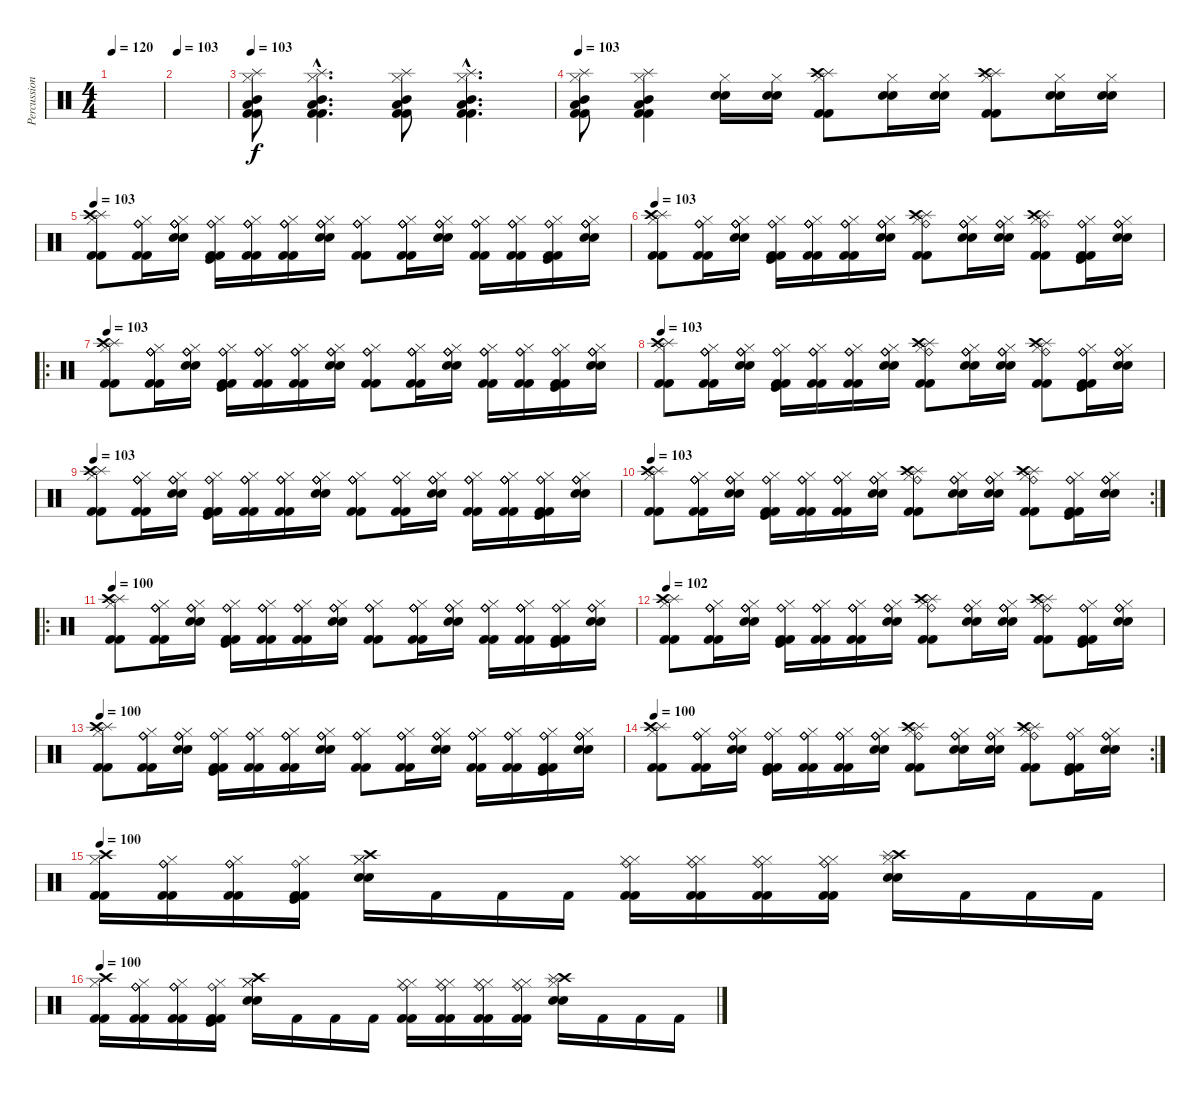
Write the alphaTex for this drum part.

\track ("Percussion" "Percussion") {instrument percussion}
\staff {score}
\articulation defaults
\ts (4 4)
\tempo 120
\tempo 103
\tempo 120
\clef neutral
\ks c
|
\tempo 103
|
\tempo 103
("Splash (hit)" "Hi-Hat (closed)" "Low Tom (hit)" "Mid Tom (hit)" "Kick (hit) 2" "Kick (hit) 2").8 ("Splash (hit)"{hac} "Hi-Hat (closed)"{hac} "Low Tom (hit)"{hac} "Mid Tom (hit)"{hac} "Kick (hit) 2"{hac} "Kick (hit) 2"{hac}).4{d} ("Splash (hit)" "Hi-Hat (closed)" "Low Tom (hit)" "Mid Tom (hit)" "Kick (hit) 2" "Kick (hit) 2").8 ("Splash (hit)"{hac} "Hi-Hat (closed)"{hac} "Low Tom (hit)"{hac} "Mid Tom (hit)"{hac} "Kick (hit) 2"{hac} "Kick (hit) 2"{hac}).4{d} |
\tempo 103
("Splash (hit)" "Hi-Hat (closed)" "Low Tom (hit)" "Mid Tom (hit)" "Kick (hit) 2" "Kick (hit) 2").8 ("Splash (hit)" "Hi-Hat (closed)" "Low Tom (hit)" "Mid Tom (hit)" "Kick (hit) 2" "Kick (hit) 2").4 ("Hi-Hat (closed)" "Snare (hit) 2" "Snare (hit) 2").16 ("Hi-Hat (closed)" "Snare (hit) 2" "Snare (hit) 2").16 ("Splash (hit)" "Crash high (hit)" "Hi-Hat (closed)" "Kick (hit) 2" "Kick (hit) 2").8 ("Hi-Hat (closed)" "Snare (hit) 2" "Snare (hit) 2").16 ("Hi-Hat (closed)" "Snare (hit) 2" "Snare (hit) 2").16 ("Splash (hit)" "Crash high (hit)" "Hi-Hat (closed)" "Kick (hit) 2" "Kick (hit) 2").8 ("Hi-Hat (closed)" "Snare (hit) 2" "Snare (hit) 2").16 ("Hi-Hat (closed)" "Snare (hit) 2" "Snare (hit) 2").16 |
\tempo 103
("Splash (hit)" "Crash high (hit)" "Hi-Hat (closed)" "Kick (hit) 2" "Kick (hit) 2").8 ("Ride (bell)" "Ride (bell)" "Ride (bell)" "Hi-Hat (closed)" "Kick (hit) 2" "Kick (hit) 2").16 ("Ride (bell)" "Ride (bell)" "Ride (bell)" "Hi-Hat (closed)" "Snare (hit) 2" "Snare (hit) 2").16 ("Ride (bell)" "Ride (bell)" "Kick (hit)" "Hi-Hat (closed)" "Kick (hit) 2" "Kick (hit) 2").16 ("Ride (bell)" "Ride (bell)" "Ride (bell)" "Hi-Hat (closed)" "Kick (hit) 2" "Kick (hit) 2").16 ("Ride (bell)" "Ride (bell)" "Ride (bell)" "Hi-Hat (closed)" "Kick (hit) 2" "Kick (hit) 2").16 ("Ride (bell)" "Ride (bell)" "Ride (bell)" "Hi-Hat (closed)" "Snare (hit) 2" "Snare (hit) 2").16 ("Ride (bell)" "Ride (bell)" "Ride (bell)" "Hi-Hat (closed)" "Kick (hit) 2" "Kick (hit) 2").8 ("Ride (bell)" "Ride (bell)" "Ride (bell)" "Hi-Hat (closed)" "Kick (hit) 2" "Kick (hit) 2").16 ("Ride (bell)" "Ride (bell)" "Ride (bell)" "Hi-Hat (closed)" "Snare (hit) 2" "Snare (hit) 2").16 ("Ride (bell)" "Ride (bell)" "Ride (bell)" "Hi-Hat (closed)" "Kick (hit) 2" "Kick (hit) 2").16 ("Ride (bell)" "Ride (bell)" "Ride (bell)" "Hi-Hat (closed)" "Kick (hit) 2" "Kick (hit) 2").16 ("Kick (hit)" "Ride (bell)" "Ride (bell)" "Hi-Hat (closed)" "Kick (hit) 2" "Kick (hit) 2").16 ("Ride (bell)" "Ride (bell)" "Ride (bell)" "Hi-Hat (closed)" "Snare (hit) 2" "Snare (hit) 2").16 |
\tempo 103
("Splash (hit)" "Crash high (hit)" "Hi-Hat (closed)" "Kick (hit) 2" "Kick (hit) 2").8 ("Ride (bell)" "Ride (bell)" "Ride (bell)" "Hi-Hat (closed)" "Kick (hit) 2" "Kick (hit) 2").16 ("Ride (bell)" "Ride (bell)" "Ride (bell)" "Hi-Hat (closed)" "Snare (hit) 2" "Snare (hit) 2").16 ("Ride (bell)" "Ride (bell)" "Kick (hit)" "Hi-Hat (closed)" "Kick (hit) 2" "Kick (hit) 2").16 ("Ride (bell)" "Ride (bell)" "Ride (bell)" "Hi-Hat (closed)" "Kick (hit) 2" "Kick (hit) 2").16 ("Ride (bell)" "Ride (bell)" "Ride (bell)" "Hi-Hat (closed)" "Kick (hit) 2" "Kick (hit) 2").16 ("Ride (bell)" "Ride (bell)" "Ride (bell)" "Hi-Hat (closed)" "Snare (hit) 2" "Snare (hit) 2").16 ("Splash (hit)" "Ride (bell)" "Crash high (hit)" "Hi-Hat (closed)" "Kick (hit) 2" "Kick (hit) 2").8 ("Ride (bell)" "Ride (bell)" "Ride (bell)" "Hi-Hat (closed)" "Snare (hit) 2" "Snare (hit) 2").16 ("Ride (bell)" "Ride (bell)" "Ride (bell)" "Hi-Hat (closed)" "Snare (hit) 2" "Snare (hit) 2").16 ("Splash (hit)" "Ride (bell)" "Crash high (hit)" "Hi-Hat (closed)" "Kick (hit) 2" "Kick (hit) 2").8 ("Kick (hit)" "Ride (bell)" "Ride (bell)" "Hi-Hat (closed)" "Kick (hit) 2" "Kick (hit) 2").16 ("Ride (bell)" "Ride (bell)" "Ride (bell)" "Hi-Hat (closed)" "Snare (hit) 2" "Snare (hit) 2").16 |
\ro
\tempo 103
("Splash (hit)" "Crash high (hit)" "Hi-Hat (closed)" "Kick (hit) 2" "Kick (hit) 2").8 ("Ride (bell)" "Ride (bell)" "Ride (bell)" "Hi-Hat (closed)" "Kick (hit) 2" "Kick (hit) 2").16 ("Ride (bell)" "Ride (bell)" "Ride (bell)" "Hi-Hat (closed)" "Snare (hit) 2" "Snare (hit) 2").16 ("Ride (bell)" "Ride (bell)" "Kick (hit)" "Hi-Hat (closed)" "Kick (hit) 2" "Kick (hit) 2").16 ("Ride (bell)" "Ride (bell)" "Ride (bell)" "Hi-Hat (closed)" "Kick (hit) 2" "Kick (hit) 2").16 ("Ride (bell)" "Ride (bell)" "Ride (bell)" "Hi-Hat (closed)" "Kick (hit) 2" "Kick (hit) 2").16 ("Ride (bell)" "Ride (bell)" "Ride (bell)" "Hi-Hat (closed)" "Snare (hit) 2" "Snare (hit) 2").16 ("Ride (bell)" "Ride (bell)" "Ride (bell)" "Hi-Hat (closed)" "Kick (hit) 2" "Kick (hit) 2").8 ("Ride (bell)" "Ride (bell)" "Ride (bell)" "Hi-Hat (closed)" "Kick (hit) 2" "Kick (hit) 2").16 ("Ride (bell)" "Ride (bell)" "Ride (bell)" "Hi-Hat (closed)" "Snare (hit) 2" "Snare (hit) 2").16 ("Ride (bell)" "Ride (bell)" "Ride (bell)" "Hi-Hat (closed)" "Kick (hit) 2" "Kick (hit) 2").16 ("Ride (bell)" "Ride (bell)" "Ride (bell)" "Hi-Hat (closed)" "Kick (hit) 2" "Kick (hit) 2").16 ("Kick (hit)" "Ride (bell)" "Ride (bell)" "Hi-Hat (closed)" "Kick (hit) 2" "Kick (hit) 2").16 ("Ride (bell)" "Ride (bell)" "Ride (bell)" "Hi-Hat (closed)" "Snare (hit) 2" "Snare (hit) 2").16 |
\tempo 103
("Splash (hit)" "Crash high (hit)" "Hi-Hat (closed)" "Kick (hit) 2" "Kick (hit) 2").8 ("Ride (bell)" "Ride (bell)" "Ride (bell)" "Hi-Hat (closed)" "Kick (hit) 2" "Kick (hit) 2").16 ("Ride (bell)" "Ride (bell)" "Ride (bell)" "Hi-Hat (closed)" "Snare (hit) 2" "Snare (hit) 2").16 ("Ride (bell)" "Ride (bell)" "Kick (hit)" "Hi-Hat (closed)" "Kick (hit) 2" "Kick (hit) 2").16 ("Ride (bell)" "Ride (bell)" "Ride (bell)" "Hi-Hat (closed)" "Kick (hit) 2" "Kick (hit) 2").16 ("Ride (bell)" "Ride (bell)" "Ride (bell)" "Hi-Hat (closed)" "Kick (hit) 2" "Kick (hit) 2").16 ("Ride (bell)" "Ride (bell)" "Ride (bell)" "Hi-Hat (closed)" "Snare (hit) 2" "Snare (hit) 2").16 ("Splash (hit)" "Ride (bell)" "Crash high (hit)" "Hi-Hat (closed)" "Kick (hit) 2" "Kick (hit) 2").8 ("Ride (bell)" "Ride (bell)" "Ride (bell)" "Hi-Hat (closed)" "Snare (hit) 2" "Snare (hit) 2").16 ("Ride (bell)" "Ride (bell)" "Ride (bell)" "Hi-Hat (closed)" "Snare (hit) 2" "Snare (hit) 2").16 ("Splash (hit)" "Ride (bell)" "Crash high (hit)" "Hi-Hat (closed)" "Kick (hit) 2" "Kick (hit) 2").8 ("Kick (hit)" "Ride (bell)" "Ride (bell)" "Hi-Hat (closed)" "Kick (hit) 2" "Kick (hit) 2").16 ("Ride (bell)" "Ride (bell)" "Ride (bell)" "Hi-Hat (closed)" "Snare (hit) 2" "Snare (hit) 2").16 |
\tempo 103
("Splash (hit)" "Crash high (hit)" "Hi-Hat (closed)" "Kick (hit) 2" "Kick (hit) 2").8 ("Ride (bell)" "Ride (bell)" "Ride (bell)" "Hi-Hat (closed)" "Kick (hit) 2" "Kick (hit) 2").16 ("Ride (bell)" "Ride (bell)" "Ride (bell)" "Hi-Hat (closed)" "Snare (hit) 2" "Snare (hit) 2").16 ("Ride (bell)" "Ride (bell)" "Kick (hit)" "Hi-Hat (closed)" "Kick (hit) 2" "Kick (hit) 2").16 ("Ride (bell)" "Ride (bell)" "Ride (bell)" "Hi-Hat (closed)" "Kick (hit) 2" "Kick (hit) 2").16 ("Ride (bell)" "Ride (bell)" "Ride (bell)" "Hi-Hat (closed)" "Kick (hit) 2" "Kick (hit) 2").16 ("Ride (bell)" "Ride (bell)" "Ride (bell)" "Hi-Hat (closed)" "Snare (hit) 2" "Snare (hit) 2").16 ("Ride (bell)" "Ride (bell)" "Ride (bell)" "Hi-Hat (closed)" "Kick (hit) 2" "Kick (hit) 2").8 ("Ride (bell)" "Ride (bell)" "Ride (bell)" "Hi-Hat (closed)" "Kick (hit) 2" "Kick (hit) 2").16 ("Ride (bell)" "Ride (bell)" "Ride (bell)" "Hi-Hat (closed)" "Snare (hit) 2" "Snare (hit) 2").16 ("Ride (bell)" "Ride (bell)" "Ride (bell)" "Hi-Hat (closed)" "Kick (hit) 2" "Kick (hit) 2").16 ("Ride (bell)" "Ride (bell)" "Ride (bell)" "Hi-Hat (closed)" "Kick (hit) 2" "Kick (hit) 2").16 ("Kick (hit)" "Ride (bell)" "Ride (bell)" "Hi-Hat (closed)" "Kick (hit) 2" "Kick (hit) 2").16 ("Ride (bell)" "Ride (bell)" "Ride (bell)" "Hi-Hat (closed)" "Snare (hit) 2" "Snare (hit) 2").16 |
\rc 2
\tempo 103
("Splash (hit)" "Crash high (hit)" "Hi-Hat (closed)" "Kick (hit) 2" "Kick (hit) 2").8 ("Ride (bell)" "Ride (bell)" "Ride (bell)" "Hi-Hat (closed)" "Kick (hit) 2" "Kick (hit) 2").16 ("Ride (bell)" "Ride (bell)" "Ride (bell)" "Hi-Hat (closed)" "Snare (hit) 2" "Snare (hit) 2").16 ("Ride (bell)" "Ride (bell)" "Kick (hit)" "Hi-Hat (closed)" "Kick (hit) 2" "Kick (hit) 2").16 ("Ride (bell)" "Ride (bell)" "Ride (bell)" "Hi-Hat (closed)" "Kick (hit) 2" "Kick (hit) 2").16 ("Ride (bell)" "Ride (bell)" "Ride (bell)" "Hi-Hat (closed)" "Kick (hit) 2" "Kick (hit) 2").16 ("Ride (bell)" "Ride (bell)" "Ride (bell)" "Hi-Hat (closed)" "Snare (hit) 2" "Snare (hit) 2").16 ("Splash (hit)" "Ride (bell)" "Crash high (hit)" "Hi-Hat (closed)" "Kick (hit) 2" "Kick (hit) 2").8 ("Ride (bell)" "Ride (bell)" "Ride (bell)" "Hi-Hat (closed)" "Snare (hit) 2" "Snare (hit) 2").16 ("Ride (bell)" "Ride (bell)" "Ride (bell)" "Hi-Hat (closed)" "Snare (hit) 2" "Snare (hit) 2").16 ("Splash (hit)" "Ride (bell)" "Crash high (hit)" "Hi-Hat (closed)" "Kick (hit) 2" "Kick (hit) 2").8 ("Kick (hit)" "Ride (bell)" "Ride (bell)" "Hi-Hat (closed)" "Kick (hit) 2" "Kick (hit) 2").16 ("Ride (bell)" "Ride (bell)" "Ride (bell)" "Hi-Hat (closed)" "Snare (hit) 2" "Snare (hit) 2").16 |
\ro
\tempo 100
("Splash (hit)" "Crash high (hit)" "Hi-Hat (closed)" "Kick (hit) 2" "Kick (hit) 2").8 ("Ride (bell)" "Ride (bell)" "Ride (bell)" "Hi-Hat (closed)" "Kick (hit) 2" "Kick (hit) 2").16 ("Ride (bell)" "Ride (bell)" "Ride (bell)" "Hi-Hat (closed)" "Snare (hit) 2" "Snare (hit) 2").16 ("Ride (bell)" "Ride (bell)" "Kick (hit)" "Hi-Hat (closed)" "Kick (hit) 2" "Kick (hit) 2").16 ("Ride (bell)" "Ride (bell)" "Ride (bell)" "Hi-Hat (closed)" "Kick (hit) 2" "Kick (hit) 2").16 ("Ride (bell)" "Ride (bell)" "Ride (bell)" "Hi-Hat (closed)" "Kick (hit) 2" "Kick (hit) 2").16 ("Ride (bell)" "Ride (bell)" "Ride (bell)" "Hi-Hat (closed)" "Snare (hit) 2" "Snare (hit) 2").16 ("Ride (bell)" "Ride (bell)" "Ride (bell)" "Hi-Hat (closed)" "Kick (hit) 2" "Kick (hit) 2").8 ("Ride (bell)" "Ride (bell)" "Ride (bell)" "Hi-Hat (closed)" "Kick (hit) 2" "Kick (hit) 2").16 ("Ride (bell)" "Ride (bell)" "Ride (bell)" "Hi-Hat (closed)" "Snare (hit) 2" "Snare (hit) 2").16 ("Ride (bell)" "Ride (bell)" "Ride (bell)" "Hi-Hat (closed)" "Kick (hit) 2" "Kick (hit) 2").16 ("Ride (bell)" "Ride (bell)" "Ride (bell)" "Hi-Hat (closed)" "Kick (hit) 2" "Kick (hit) 2").16 ("Kick (hit)" "Ride (bell)" "Ride (bell)" "Hi-Hat (closed)" "Kick (hit) 2" "Kick (hit) 2").16 ("Ride (bell)" "Ride (bell)" "Ride (bell)" "Hi-Hat (closed)" "Snare (hit) 2" "Snare (hit) 2").16 |
\tempo 102
("Splash (hit)" "Crash high (hit)" "Hi-Hat (closed)" "Kick (hit) 2" "Kick (hit) 2").8 ("Ride (bell)" "Ride (bell)" "Ride (bell)" "Hi-Hat (closed)" "Kick (hit) 2" "Kick (hit) 2").16 ("Ride (bell)" "Ride (bell)" "Ride (bell)" "Hi-Hat (closed)" "Snare (hit) 2" "Snare (hit) 2").16 ("Ride (bell)" "Ride (bell)" "Kick (hit)" "Hi-Hat (closed)" "Kick (hit) 2" "Kick (hit) 2").16 ("Ride (bell)" "Ride (bell)" "Ride (bell)" "Hi-Hat (closed)" "Kick (hit) 2" "Kick (hit) 2").16 ("Ride (bell)" "Ride (bell)" "Ride (bell)" "Hi-Hat (closed)" "Kick (hit) 2" "Kick (hit) 2").16 ("Ride (bell)" "Ride (bell)" "Ride (bell)" "Hi-Hat (closed)" "Snare (hit) 2" "Snare (hit) 2").16 ("Splash (hit)" "Ride (bell)" "Crash high (hit)" "Hi-Hat (closed)" "Kick (hit) 2" "Kick (hit) 2").8 ("Ride (bell)" "Ride (bell)" "Ride (bell)" "Hi-Hat (closed)" "Snare (hit) 2" "Snare (hit) 2").16 ("Ride (bell)" "Ride (bell)" "Ride (bell)" "Hi-Hat (closed)" "Snare (hit) 2" "Snare (hit) 2").16 ("Splash (hit)" "Ride (bell)" "Crash high (hit)" "Hi-Hat (closed)" "Kick (hit) 2" "Kick (hit) 2").8 ("Kick (hit)" "Ride (bell)" "Ride (bell)" "Hi-Hat (closed)" "Kick (hit) 2" "Kick (hit) 2").16 ("Ride (bell)" "Ride (bell)" "Ride (bell)" "Hi-Hat (closed)" "Snare (hit) 2" "Snare (hit) 2").16 |
\tempo 100
("Splash (hit)" "Crash high (hit)" "Hi-Hat (closed)" "Kick (hit) 2" "Kick (hit) 2").8 ("Ride (bell)" "Ride (bell)" "Ride (bell)" "Hi-Hat (closed)" "Kick (hit) 2" "Kick (hit) 2").16 ("Ride (bell)" "Ride (bell)" "Ride (bell)" "Hi-Hat (closed)" "Snare (hit) 2" "Snare (hit) 2").16 ("Ride (bell)" "Ride (bell)" "Kick (hit)" "Hi-Hat (closed)" "Kick (hit) 2" "Kick (hit) 2").16 ("Ride (bell)" "Ride (bell)" "Ride (bell)" "Hi-Hat (closed)" "Kick (hit) 2" "Kick (hit) 2").16 ("Ride (bell)" "Ride (bell)" "Ride (bell)" "Hi-Hat (closed)" "Kick (hit) 2" "Kick (hit) 2").16 ("Ride (bell)" "Ride (bell)" "Ride (bell)" "Hi-Hat (closed)" "Snare (hit) 2" "Snare (hit) 2").16 ("Ride (bell)" "Ride (bell)" "Ride (bell)" "Hi-Hat (closed)" "Kick (hit) 2" "Kick (hit) 2").8 ("Ride (bell)" "Ride (bell)" "Ride (bell)" "Hi-Hat (closed)" "Kick (hit) 2" "Kick (hit) 2").16 ("Ride (bell)" "Ride (bell)" "Ride (bell)" "Hi-Hat (closed)" "Snare (hit) 2" "Snare (hit) 2").16 ("Ride (bell)" "Ride (bell)" "Ride (bell)" "Hi-Hat (closed)" "Kick (hit) 2" "Kick (hit) 2").16 ("Ride (bell)" "Ride (bell)" "Ride (bell)" "Hi-Hat (closed)" "Kick (hit) 2" "Kick (hit) 2").16 ("Kick (hit)" "Ride (bell)" "Ride (bell)" "Hi-Hat (closed)" "Kick (hit) 2" "Kick (hit) 2").16 ("Ride (bell)" "Ride (bell)" "Ride (bell)" "Hi-Hat (closed)" "Snare (hit) 2" "Snare (hit) 2").16 |
\rc 2
\tempo 100
("Splash (hit)" "Crash high (hit)" "Hi-Hat (closed)" "Kick (hit) 2" "Kick (hit) 2").8 ("Ride (bell)" "Ride (bell)" "Ride (bell)" "Hi-Hat (closed)" "Kick (hit) 2" "Kick (hit) 2").16 ("Ride (bell)" "Ride (bell)" "Ride (bell)" "Hi-Hat (closed)" "Snare (hit) 2" "Snare (hit) 2").16 ("Ride (bell)" "Ride (bell)" "Kick (hit)" "Hi-Hat (closed)" "Kick (hit) 2" "Kick (hit) 2").16 ("Ride (bell)" "Ride (bell)" "Ride (bell)" "Hi-Hat (closed)" "Kick (hit) 2" "Kick (hit) 2").16 ("Ride (bell)" "Ride (bell)" "Ride (bell)" "Hi-Hat (closed)" "Kick (hit) 2" "Kick (hit) 2").16 ("Ride (bell)" "Ride (bell)" "Ride (bell)" "Hi-Hat (closed)" "Snare (hit) 2" "Snare (hit) 2").16 ("Splash (hit)" "Ride (bell)" "Crash high (hit)" "Hi-Hat (closed)" "Kick (hit) 2" "Kick (hit) 2").8 ("Ride (bell)" "Ride (bell)" "Ride (bell)" "Hi-Hat (closed)" "Snare (hit) 2" "Snare (hit) 2").16 ("Ride (bell)" "Ride (bell)" "Ride (bell)" "Hi-Hat (closed)" "Snare (hit) 2" "Snare (hit) 2").16 ("Splash (hit)" "Ride (bell)" "Crash high (hit)" "Hi-Hat (closed)" "Kick (hit) 2" "Kick (hit) 2").8 ("Kick (hit)" "Ride (bell)" "Ride (bell)" "Hi-Hat (closed)" "Kick (hit) 2" "Kick (hit) 2").16 ("Ride (bell)" "Ride (bell)" "Ride (bell)" "Hi-Hat (closed)" "Snare (hit) 2" "Snare (hit) 2").16 |
\tempo 100
("Crash high (hit)" "Hi-Hat (closed)" "Kick (hit) 2" "Kick (hit) 2").16 ("Ride (bell)" "Ride (bell)" "Hi-Hat (closed)" "Kick (hit) 2" "Kick (hit) 2").16 ("Ride (bell)" "Ride (bell)" "Hi-Hat (closed)" "Kick (hit) 2" "Kick (hit) 2").16 ("Ride (bell)" "Kick (hit)" "Hi-Hat (closed)" "Kick (hit) 2" "Kick (hit) 2").16 ("Crash high (hit)" "Hi-Hat (closed)" "Hi-Hat (closed)" "Snare (hit) 2" "Snare (hit) 2").16 "Kick (hit) 2".16 "Kick (hit) 2".16 "Kick (hit) 2".16 ("Ride (bell)" "Hi-Hat (closed)" "Hi-Hat (closed)" "Kick (hit) 2" "Kick (hit) 2").16 ("Ride (bell)" "Hi-Hat (closed)" "Hi-Hat (closed)" "Kick (hit) 2" "Kick (hit) 2").16 ("Ride (bell)" "Hi-Hat (closed)" "Hi-Hat (closed)" "Kick (hit) 2" "Kick (hit) 2").16 ("Ride (bell)" "Hi-Hat (closed)" "Hi-Hat (closed)" "Kick (hit) 2" "Kick (hit) 2").16 ("Crash high (hit)" "Splash (hit)" "Hi-Hat (closed)" "Snare (hit) 2" "Snare (hit) 2").16 "Kick (hit) 2".16 "Kick (hit) 2".16 "Kick (hit) 2".16 |
\tempo 100
("Crash high (hit)" "Hi-Hat (closed)" "Kick (hit) 2" "Kick (hit) 2").16 ("Ride (bell)" "Ride (bell)" "Hi-Hat (closed)" "Kick (hit) 2" "Kick (hit) 2").16 ("Ride (bell)" "Ride (bell)" "Hi-Hat (closed)" "Kick (hit) 2" "Kick (hit) 2").16 ("Ride (bell)" "Kick (hit)" "Hi-Hat (closed)" "Kick (hit) 2" "Kick (hit) 2").16 ("Crash high (hit)" "Hi-Hat (closed)" "Hi-Hat (closed)" "Snare (hit) 2" "Snare (hit) 2").16 "Kick (hit) 2".16 "Kick (hit) 2".16 "Kick (hit) 2".16 ("Ride (bell)" "Hi-Hat (closed)" "Hi-Hat (closed)" "Kick (hit) 2" "Kick (hit) 2").16 ("Ride (bell)" "Hi-Hat (closed)" "Hi-Hat (closed)" "Kick (hit) 2" "Kick (hit) 2").16 ("Ride (bell)" "Hi-Hat (closed)" "Hi-Hat (closed)" "Kick (hit) 2" "Kick (hit) 2").16 ("Ride (bell)" "Hi-Hat (closed)" "Hi-Hat (closed)" "Kick (hit) 2" "Kick (hit) 2").16 ("Crash high (hit)" "Splash (hit)" "Hi-Hat (closed)" "Snare (hit) 2" "Snare (hit) 2").16 "Kick (hit) 2".16 "Kick (hit) 2".16 "Kick (hit) 2".16
